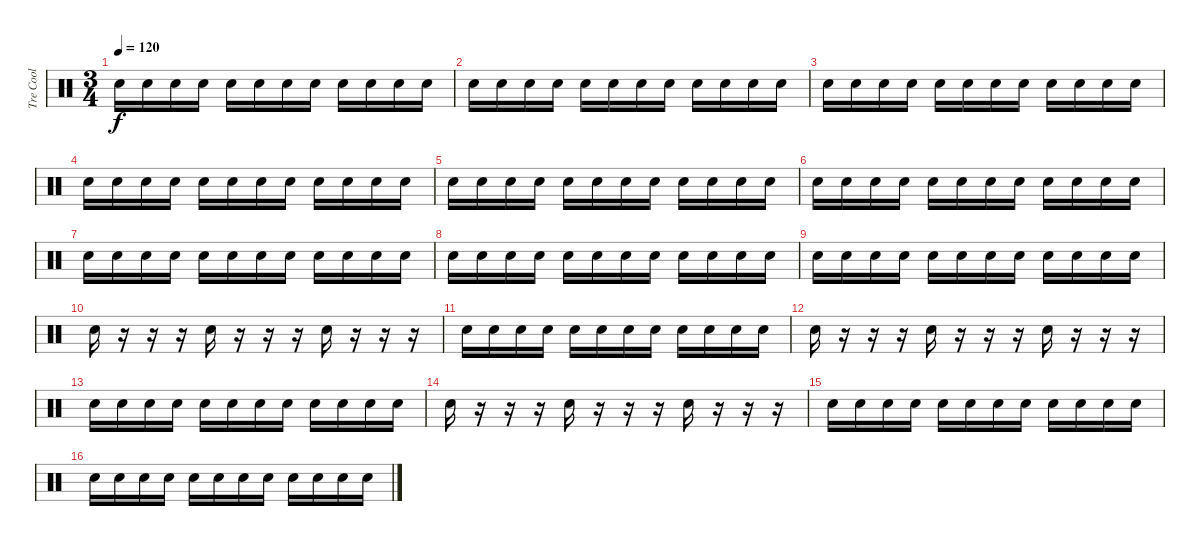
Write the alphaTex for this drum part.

\track ("Tre Cool" "Tre Cool") {instrument percussion}
\staff {score}
\articulation defaults
\ts (3 4)
\tempo 120
\clef neutral
\ks c "Snare (hit) 2".16{dy f} "Snare (hit) 2".16 "Snare (hit) 2".16 "Snare (hit) 2".16 "Snare (hit) 2".16 "Snare (hit) 2".16 "Snare (hit) 2".16 "Snare (hit) 2".16 "Snare (hit) 2".16 "Snare (hit) 2".16 "Snare (hit) 2".16 "Snare (hit) 2".16
|
"Snare (hit) 2".16 "Snare (hit) 2".16 "Snare (hit) 2".16 "Snare (hit) 2".16 "Snare (hit) 2".16 "Snare (hit) 2".16 "Snare (hit) 2".16 "Snare (hit) 2".16 "Snare (hit) 2".16 "Snare (hit) 2".16 "Snare (hit) 2".16 "Snare (hit) 2".16 |
"Snare (hit) 2".16 "Snare (hit) 2".16 "Snare (hit) 2".16 "Snare (hit) 2".16 "Snare (hit) 2".16 "Snare (hit) 2".16 "Snare (hit) 2".16 "Snare (hit) 2".16 "Snare (hit) 2".16 "Snare (hit) 2".16 "Snare (hit) 2".16 "Snare (hit) 2".16 |
"Snare (hit) 2".16 "Snare (hit) 2".16 "Snare (hit) 2".16 "Snare (hit) 2".16 "Snare (hit) 2".16 "Snare (hit) 2".16 "Snare (hit) 2".16 "Snare (hit) 2".16 "Snare (hit) 2".16 "Snare (hit) 2".16 "Snare (hit) 2".16 "Snare (hit) 2".16 |
"Snare (hit) 2".16 "Snare (hit) 2".16 "Snare (hit) 2".16 "Snare (hit) 2".16 "Snare (hit) 2".16 "Snare (hit) 2".16 "Snare (hit) 2".16 "Snare (hit) 2".16 "Snare (hit) 2".16 "Snare (hit) 2".16 "Snare (hit) 2".16 "Snare (hit) 2".16 |
"Snare (hit) 2".16 "Snare (hit) 2".16 "Snare (hit) 2".16 "Snare (hit) 2".16 "Snare (hit) 2".16 "Snare (hit) 2".16 "Snare (hit) 2".16 "Snare (hit) 2".16 "Snare (hit) 2".16 "Snare (hit) 2".16 "Snare (hit) 2".16 "Snare (hit) 2".16 |
"Snare (hit) 2".16{volume 8} "Snare (hit) 2".16 "Snare (hit) 2".16 "Snare (hit) 2".16 "Snare (hit) 2".16 "Snare (hit) 2".16 "Snare (hit) 2".16 "Snare (hit) 2".16 "Snare (hit) 2".16 "Snare (hit) 2".16 "Snare (hit) 2".16 "Snare (hit) 2".16 |
"Snare (hit) 2".16 "Snare (hit) 2".16 "Snare (hit) 2".16 "Snare (hit) 2".16 "Snare (hit) 2".16 "Snare (hit) 2".16 "Snare (hit) 2".16 "Snare (hit) 2".16 "Snare (hit) 2".16 "Snare (hit) 2".16 "Snare (hit) 2".16 "Snare (hit) 2".16 |
"Snare (hit) 2".16 "Snare (hit) 2".16 "Snare (hit) 2".16 "Snare (hit) 2".16 "Snare (hit) 2".16 "Snare (hit) 2".16 "Snare (hit) 2".16 "Snare (hit) 2".16 "Snare (hit) 2".16 "Snare (hit) 2".16 "Snare (hit) 2".16 "Snare (hit) 2".16 |
"Snare (hit) 2".16 r.16 r.16 r.16 "Snare (hit) 2".16 r.16 r.16 r.16 "Snare (hit) 2".16 r.16 r.16 r.16 |
"Snare (hit) 2".16 "Snare (hit) 2".16 "Snare (hit) 2".16 "Snare (hit) 2".16 "Snare (hit) 2".16 "Snare (hit) 2".16 "Snare (hit) 2".16 "Snare (hit) 2".16 "Snare (hit) 2".16 "Snare (hit) 2".16 "Snare (hit) 2".16 "Snare (hit) 2".16 |
"Snare (hit) 2".16 r.16 r.16 r.16 "Snare (hit) 2".16 r.16 r.16 r.16 "Snare (hit) 2".16 r.16 r.16 r.16 |
"Snare (hit) 2".16 "Snare (hit) 2".16 "Snare (hit) 2".16 "Snare (hit) 2".16 "Snare (hit) 2".16 "Snare (hit) 2".16 "Snare (hit) 2".16 "Snare (hit) 2".16 "Snare (hit) 2".16 "Snare (hit) 2".16 "Snare (hit) 2".16 "Snare (hit) 2".16 |
"Snare (hit) 2".16 r.16 r.16 r.16 "Snare (hit) 2".16 r.16 r.16 r.16 "Snare (hit) 2".16 r.16 r.16 r.16 |
"Snare (hit) 2".16 "Snare (hit) 2".16 "Snare (hit) 2".16 "Snare (hit) 2".16 "Snare (hit) 2".16 "Snare (hit) 2".16 "Snare (hit) 2".16 "Snare (hit) 2".16 "Snare (hit) 2".16 "Snare (hit) 2".16 "Snare (hit) 2".16 "Snare (hit) 2".16 |
"Snare (hit) 2".16 "Snare (hit) 2".16 "Snare (hit) 2".16 "Snare (hit) 2".16 "Snare (hit) 2".16 "Snare (hit) 2".16 "Snare (hit) 2".16 "Snare (hit) 2".16 "Snare (hit) 2".16 "Snare (hit) 2".16 "Snare (hit) 2".16 "Snare (hit) 2".16
